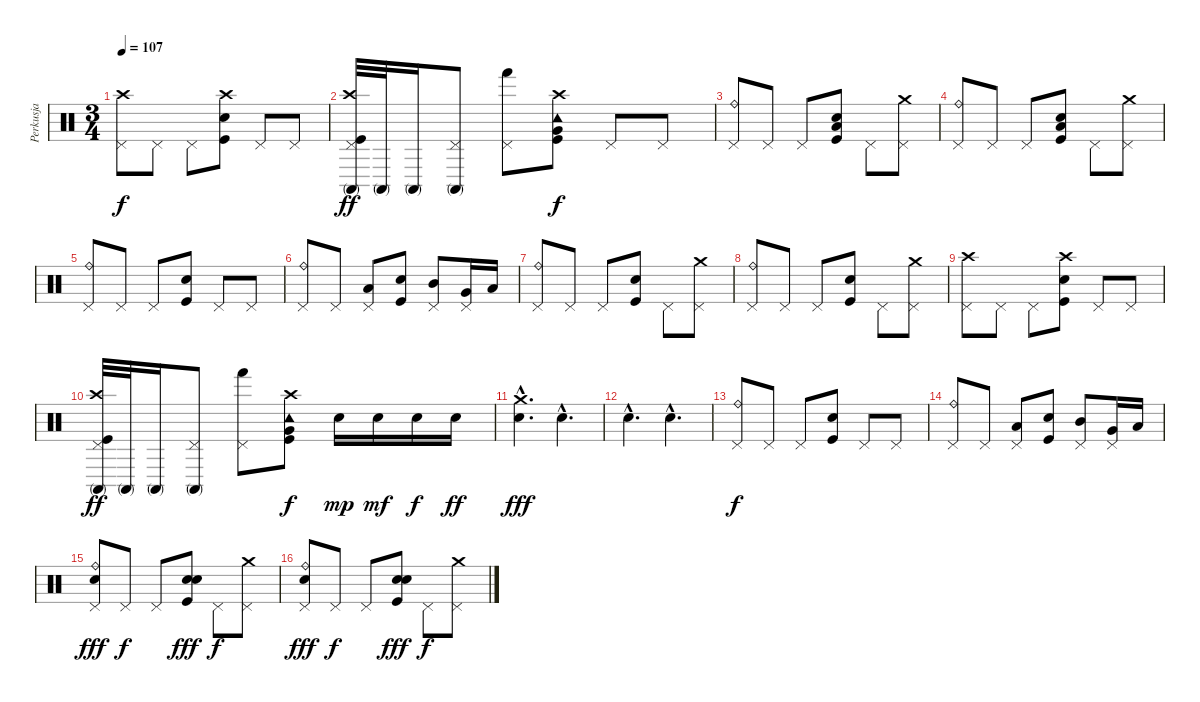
\track ("Perkusja" "Perkusja") {instrument percussion}
\staff {score}
\articulation defaults
\ts (3 4)
\tempo 107
\clef neutral
\ks c
("Pedal Hi-Hat (hit)" "Crash high (hit)").8{dy f} "Pedal Hi-Hat (hit)".8 "Pedal Hi-Hat (hit)".8 ("Electric Snare (hit)" "Kick (hit)" "Crash high (hit)").8 "Pedal Hi-Hat (hit)".8 "Pedal Hi-Hat (hit)".8 |
("Conga high (mute)" "Pedal Hi-Hat (hit)" "Crash high (hit)" "Kick (hit)").32{dy ff} "Conga high (mute)".32 "Conga high (mute)".16 ("Conga high (mute)" "Pedal Hi-Hat (hit)").8 ("Hand (hit)" "Pedal Hi-Hat (hit)").8 ("Tambourine (hit)" "Very Low Tom (hit)" "Crash high (hit)" "Kick (hit)").8{dy f} "Pedal Hi-Hat (hit)".8 "Pedal Hi-Hat (hit)".8 |
("Pedal Hi-Hat (hit)" "Ride (bell)").8 "Pedal Hi-Hat (hit)".8 "Pedal Hi-Hat (hit)".8 ("Electric Snare (hit)" "Kick (hit)" "Low Tom (hit)").8 "Pedal Hi-Hat (hit)".8 ("Pedal Hi-Hat (hit)" "Crash medium (hit)").8 |
("Pedal Hi-Hat (hit)" "Ride (bell)").8 "Pedal Hi-Hat (hit)".8 "Pedal Hi-Hat (hit)".8 ("Electric Snare (hit)" "Kick (hit)" "Low Tom (hit)").8 "Pedal Hi-Hat (hit)".8 ("Pedal Hi-Hat (hit)" "Crash medium (hit)").8 |
("Pedal Hi-Hat (hit)" "Ride (bell)").8 "Pedal Hi-Hat (hit)".8 "Pedal Hi-Hat (hit)".8 ("Electric Snare (hit)" "Kick (hit)").8 "Pedal Hi-Hat (hit)".8 "Pedal Hi-Hat (hit)".8 |
("Pedal Hi-Hat (hit)" "Ride (bell)").8 "Pedal Hi-Hat (hit)".8 ("Pedal Hi-Hat (hit)" "Low Tom (hit)").8 ("Electric Snare (hit)" "Kick (hit)").8 ("Pedal Hi-Hat (hit)" "Mid Tom (hit)").8 ("Pedal Hi-Hat (hit)" "Very Low Tom (hit)").16 "Low Floor Tom (hit)".16 |
("Pedal Hi-Hat (hit)" "Ride (bell)").8 "Pedal Hi-Hat (hit)".8 "Pedal Hi-Hat (hit)".8 ("Electric Snare (hit)" "Kick (hit)").8 "Pedal Hi-Hat (hit)".8 ("Pedal Hi-Hat (hit)" "Crash medium (hit)").8 |
("Pedal Hi-Hat (hit)" "Ride (bell)").8 "Pedal Hi-Hat (hit)".8 "Pedal Hi-Hat (hit)".8 ("Electric Snare (hit)" "Kick (hit)").8 "Pedal Hi-Hat (hit)".8 ("Pedal Hi-Hat (hit)" "Crash medium (hit)").8 |
("Pedal Hi-Hat (hit)" "Crash high (hit)").8 "Pedal Hi-Hat (hit)".8 "Pedal Hi-Hat (hit)".8 ("Electric Snare (hit)" "Kick (hit)" "Crash high (hit)").8 "Pedal Hi-Hat (hit)".8 "Pedal Hi-Hat (hit)".8 |
("Conga high (mute)" "Pedal Hi-Hat (hit)" "Crash high (hit)" "Kick (hit)").32{dy ff} "Conga high (mute)".32 "Conga high (mute)".16 ("Conga high (mute)" "Pedal Hi-Hat (hit)").8 ("Hand (hit)" "Pedal Hi-Hat (hit)").8 ("Tambourine (hit)" "Very Low Tom (hit)" "Crash high (hit)" "Kick (hit)").8{dy f} "Electric Snare (hit)".16{dy mp} "Electric Snare (hit)".16{dy mf} "Electric Snare (hit)".16{dy f} "Electric Snare (hit)".16{dy ff} |
("Hand Clap (hit)"{hac} "Crash medium (hit)"{hac}).4{d dy fff} "Hand Clap (hit)"{hac}.4{d} |
"Hand Clap (hit)"{hac}.4{d} "Hand Clap (hit)"{hac}.4{d} |
("Pedal Hi-Hat (hit)" "Ride (bell)").8{dy f} "Pedal Hi-Hat (hit)".8 "Pedal Hi-Hat (hit)".8 ("Electric Snare (hit)" "Kick (hit)").8 "Pedal Hi-Hat (hit)".8 "Pedal Hi-Hat (hit)".8 |
("Pedal Hi-Hat (hit)" "Ride (bell)").8 "Pedal Hi-Hat (hit)".8 ("Pedal Hi-Hat (hit)" "Low Tom (hit)").8 ("Electric Snare (hit)" "Kick (hit)").8 ("Pedal Hi-Hat (hit)" "Mid Tom (hit)").8 ("Pedal Hi-Hat (hit)" "Very Low Tom (hit)").16 "Low Floor Tom (hit)".16 |
("Pedal Hi-Hat (hit)" "Ride (bell)" "Hand Clap (hit)").8{dy fff} "Pedal Hi-Hat (hit)".8{dy f} "Pedal Hi-Hat (hit)".8 ("Electric Snare (hit)" "Kick (hit)" "Hand Clap (hit)").8{dy fff} "Pedal Hi-Hat (hit)".8{dy f} ("Pedal Hi-Hat (hit)" "Crash medium (hit)").8 |
("Pedal Hi-Hat (hit)" "Ride (bell)" "Hand Clap (hit)").8{dy fff} "Pedal Hi-Hat (hit)".8{dy f} "Pedal Hi-Hat (hit)".8 ("Electric Snare (hit)" "Kick (hit)" "Hand Clap (hit)").8{dy fff} "Pedal Hi-Hat (hit)".8{dy f} ("Pedal Hi-Hat (hit)" "Crash medium (hit)").8
